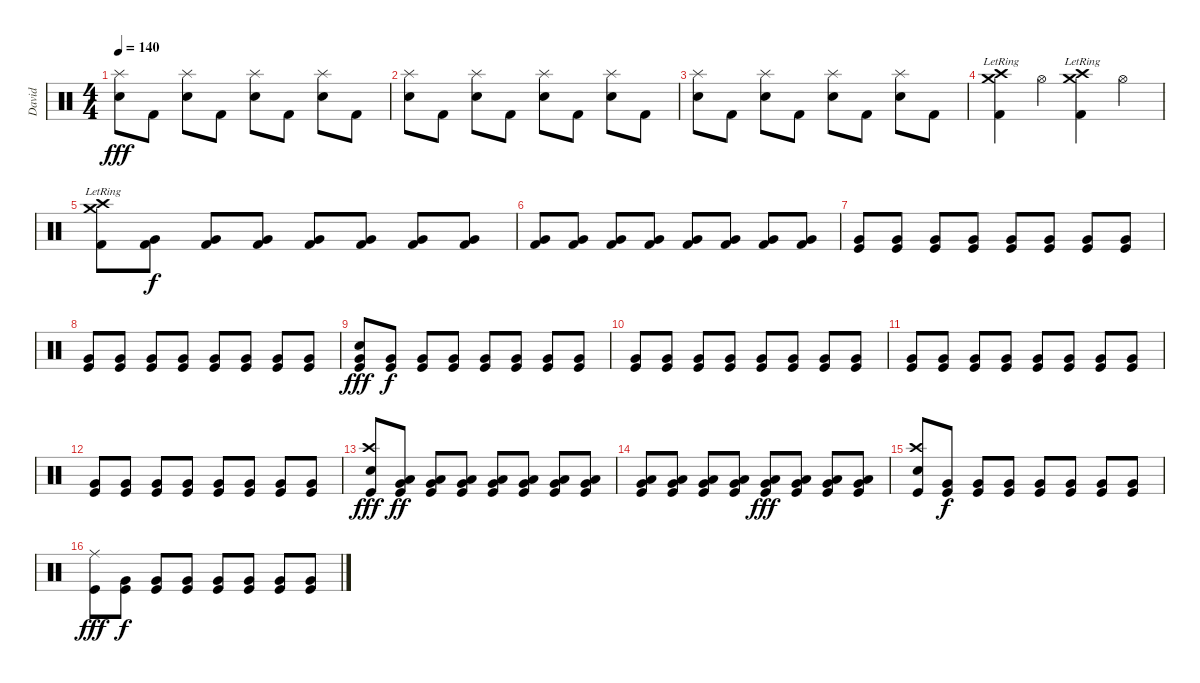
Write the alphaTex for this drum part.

\track ("David " "David ") {instrument percussion}
\staff {score}
\articulation defaults
\ts (4 4)
\tempo 140
\clef neutral
\ks c
("Electric Snare (hit)" "Splash (hit)").8{dy fff} "Kick (hit) 2".8 ("Electric Snare (hit)" "Splash (hit)").8 "Kick (hit) 2".8 ("Electric Snare (hit)" "Splash (hit)").8 "Kick (hit) 2".8 ("Electric Snare (hit)" "Splash (hit)").8 "Kick (hit) 2".8 |
("Electric Snare (hit)" "Splash (hit)").8 "Kick (hit) 2".8 ("Electric Snare (hit)" "Splash (hit)").8 "Kick (hit) 2".8 ("Electric Snare (hit)" "Splash (hit)").8 "Kick (hit) 2".8 ("Electric Snare (hit)" "Splash (hit)").8 "Kick (hit) 2".8 |
("Electric Snare (hit)" "Splash (hit)").8 "Kick (hit) 2".8 ("Electric Snare (hit)" "Splash (hit)").8 "Kick (hit) 2".8 ("Electric Snare (hit)" "Splash (hit)").8 "Kick (hit) 2".8 ("Electric Snare (hit)" "Splash (hit)").8 "Kick (hit) 2".8 |
("Crash high (hit)"{lr} "Crash medium (hit)"{lr} "Kick (hit) 2").4 "Hi-Hat (open)".4 ("Crash high (hit)"{lr} "Crash medium (hit)" "Kick (hit) 2").4 "Hi-Hat (open)".4 |
("Crash high (hit)"{lr} "Crash medium (hit)"{lr} "Kick (hit) 2").8 ("Very Low Tom (hit)" "Kick (hit) 2").8{dy f} ("Very Low Tom (hit)" "Kick (hit) 2").8 ("Very Low Tom (hit)" "Kick (hit) 2").8 ("Very Low Tom (hit)" "Kick (hit) 2").8 ("Very Low Tom (hit)" "Kick (hit) 2").8 ("Very Low Tom (hit)" "Kick (hit) 2").8 ("Very Low Tom (hit)" "Kick (hit) 2").8 |
("Very Low Tom (hit)" "Kick (hit) 2").8 ("Very Low Tom (hit)" "Kick (hit) 2").8 ("Very Low Tom (hit)" "Kick (hit) 2").8 ("Very Low Tom (hit)" "Kick (hit) 2").8 ("Very Low Tom (hit)" "Kick (hit) 2").8 ("Very Low Tom (hit)" "Kick (hit) 2").8 ("Very Low Tom (hit)" "Kick (hit) 2").8 ("Very Low Tom (hit)" "Kick (hit) 2").8 |
("Very Low Tom (hit)" "Kick (hit)").8 ("Very Low Tom (hit)" "Kick (hit)").8 ("Very Low Tom (hit)" "Kick (hit)").8 ("Very Low Tom (hit)" "Kick (hit)").8 ("Very Low Tom (hit)" "Kick (hit)").8 ("Very Low Tom (hit)" "Kick (hit)").8 ("Very Low Tom (hit)" "Kick (hit)").8 ("Very Low Tom (hit)" "Kick (hit)").8 |
("Very Low Tom (hit)" "Kick (hit)").8 ("Very Low Tom (hit)" "Kick (hit)").8 ("Very Low Tom (hit)" "Kick (hit)").8 ("Very Low Tom (hit)" "Kick (hit)").8 ("Very Low Tom (hit)" "Kick (hit)").8 ("Very Low Tom (hit)" "Kick (hit)").8 ("Very Low Tom (hit)" "Kick (hit)").8 ("Very Low Tom (hit)" "Kick (hit)").8 |
("Electric Snare (hit)" "Very Low Tom (hit)" "Kick (hit)").8{dy fff} ("Very Low Tom (hit)" "Kick (hit)").8{dy f} ("Very Low Tom (hit)" "Kick (hit)").8 ("Very Low Tom (hit)" "Kick (hit)").8 ("Very Low Tom (hit)" "Kick (hit)").8 ("Very Low Tom (hit)" "Kick (hit)").8 ("Very Low Tom (hit)" "Kick (hit)").8 ("Very Low Tom (hit)" "Kick (hit)").8 |
("Very Low Tom (hit)" "Kick (hit)").8 ("Very Low Tom (hit)" "Kick (hit)").8 ("Very Low Tom (hit)" "Kick (hit)").8 ("Very Low Tom (hit)" "Kick (hit)").8 ("Very Low Tom (hit)" "Kick (hit)").8 ("Very Low Tom (hit)" "Kick (hit)").8 ("Very Low Tom (hit)" "Kick (hit)").8 ("Very Low Tom (hit)" "Kick (hit)").8 |
("Very Low Tom (hit)" "Kick (hit)").8 ("Very Low Tom (hit)" "Kick (hit)").8 ("Very Low Tom (hit)" "Kick (hit)").8 ("Very Low Tom (hit)" "Kick (hit)").8 ("Very Low Tom (hit)" "Kick (hit)").8 ("Very Low Tom (hit)" "Kick (hit)").8 ("Very Low Tom (hit)" "Kick (hit)").8 ("Very Low Tom (hit)" "Kick (hit)").8 |
("Very Low Tom (hit)" "Kick (hit)").8 ("Very Low Tom (hit)" "Kick (hit)").8 ("Very Low Tom (hit)" "Kick (hit)").8 ("Very Low Tom (hit)" "Kick (hit)").8 ("Very Low Tom (hit)" "Kick (hit)").8 ("Very Low Tom (hit)" "Kick (hit)").8 ("Very Low Tom (hit)" "Kick (hit)").8 ("Very Low Tom (hit)" "Kick (hit)").8 |
("Crash high (hit)" "Electric Snare (hit)" "Kick (hit)").8{dy fff} ("Low Tom (hit)" "Very Low Tom (hit)" "Kick (hit)").8{dy ff} ("Low Tom (hit)" "Very Low Tom (hit)" "Kick (hit)").8 ("Low Tom (hit)" "Very Low Tom (hit)" "Kick (hit)").8 ("Low Tom (hit)" "Very Low Tom (hit)" "Kick (hit)").8 ("Low Tom (hit)" "Very Low Tom (hit)" "Kick (hit)").8 ("Low Tom (hit)" "Very Low Tom (hit)" "Kick (hit)").8 ("Low Tom (hit)" "Very Low Tom (hit)" "Kick (hit)").8 |
("Low Tom (hit)" "Very Low Tom (hit)" "Kick (hit)").8 ("Low Tom (hit)" "Very Low Tom (hit)" "Kick (hit)").8 ("Low Tom (hit)" "Very Low Tom (hit)" "Kick (hit)").8 ("Low Tom (hit)" "Very Low Tom (hit)" "Kick (hit)").8 ("Low Tom (hit)" "Very Low Tom (hit)" "Kick (hit)").8{dy fff} ("Low Tom (hit)" "Very Low Tom (hit)" "Kick (hit)").8 ("Low Tom (hit)" "Very Low Tom (hit)" "Kick (hit)").8 ("Low Tom (hit)" "Very Low Tom (hit)" "Kick (hit)").8 |
("Crash high (hit)" "Electric Snare (hit)" "Kick (hit)").8 ("Very Low Tom (hit)" "Kick (hit)").8{dy f} ("Very Low Tom (hit)" "Kick (hit)").8 ("Very Low Tom (hit)" "Kick (hit)").8 ("Very Low Tom (hit)" "Kick (hit)").8 ("Very Low Tom (hit)" "Kick (hit)").8 ("Very Low Tom (hit)" "Kick (hit)").8 ("Very Low Tom (hit)" "Kick (hit)").8 |
("Ride (middle)" "Kick (hit)").8{dy fff} ("Very Low Tom (hit)" "Kick (hit)").8{dy f} ("Very Low Tom (hit)" "Kick (hit)").8 ("Very Low Tom (hit)" "Kick (hit)").8 ("Very Low Tom (hit)" "Kick (hit)").8 ("Very Low Tom (hit)" "Kick (hit)").8 ("Very Low Tom (hit)" "Kick (hit)").8 ("Very Low Tom (hit)" "Kick (hit)").8
